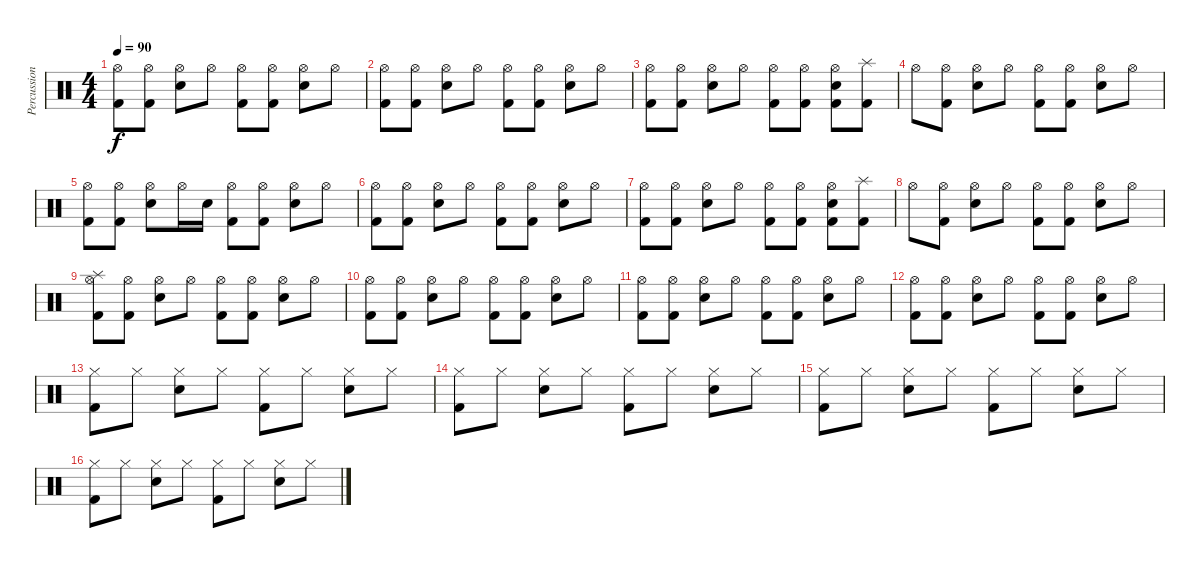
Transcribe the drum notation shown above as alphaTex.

\track ("Percussion" "Percussion") {instrument percussion}
\staff {score}
\articulation defaults
\ts (4 4)
\tempo 90
\clef neutral
\ks c
("Hi-Hat (open)" "Kick (hit) 2").8{dy f} ("Hi-Hat (open)" "Kick (hit) 2").8 ("Hi-Hat (open)" "Snare (hit) 2").8 "Hi-Hat (open)".8 ("Hi-Hat (open)" "Kick (hit) 2").8 ("Hi-Hat (open)" "Kick (hit) 2").8 ("Hi-Hat (open)" "Snare (hit) 2").8 "Hi-Hat (open)".8 |
("Hi-Hat (open)" "Kick (hit) 2").8 ("Hi-Hat (open)" "Kick (hit) 2").8 ("Hi-Hat (open)" "Snare (hit) 2").8 "Hi-Hat (open)".8 ("Hi-Hat (open)" "Kick (hit) 2").8 ("Hi-Hat (open)" "Kick (hit) 2").8 ("Hi-Hat (open)" "Snare (hit) 2").8 "Hi-Hat (open)".8 |
("Hi-Hat (open)" "Kick (hit) 2").8 ("Hi-Hat (open)" "Kick (hit) 2").8 ("Hi-Hat (open)" "Snare (hit) 2").8 "Hi-Hat (open)".8 ("Hi-Hat (open)" "Kick (hit) 2").8 ("Hi-Hat (open)" "Kick (hit) 2").8 ("Hi-Hat (open)" "Snare (hit) 2" "Kick (hit) 2").8 ("Splash (hit)" "Kick (hit) 2").8 |
"Hi-Hat (open)".8 ("Hi-Hat (open)" "Kick (hit) 2").8 ("Hi-Hat (open)" "Snare (hit) 2").8 "Hi-Hat (open)".8 ("Hi-Hat (open)" "Kick (hit) 2").8 ("Hi-Hat (open)" "Kick (hit) 2").8 ("Hi-Hat (open)" "Snare (hit) 2").8 "Hi-Hat (open)".8 |
("Hi-Hat (open)" "Kick (hit) 2").8 ("Hi-Hat (open)" "Kick (hit) 2").8 ("Hi-Hat (open)" "Snare (hit) 2").8 "Hi-Hat (open)".16 "Snare (hit) 2".16 ("Hi-Hat (open)" "Kick (hit) 2").8 ("Hi-Hat (open)" "Kick (hit) 2").8 ("Hi-Hat (open)" "Snare (hit) 2").8 "Hi-Hat (open)".8 |
("Hi-Hat (open)" "Kick (hit) 2").8 ("Hi-Hat (open)" "Kick (hit) 2").8 ("Hi-Hat (open)" "Snare (hit) 2").8 "Hi-Hat (open)".8 ("Hi-Hat (open)" "Kick (hit) 2").8 ("Hi-Hat (open)" "Kick (hit) 2").8 ("Hi-Hat (open)" "Snare (hit) 2").8 "Hi-Hat (open)".8 |
("Hi-Hat (open)" "Kick (hit) 2").8 ("Hi-Hat (open)" "Kick (hit) 2").8 ("Hi-Hat (open)" "Snare (hit) 2").8 "Hi-Hat (open)".8 ("Hi-Hat (open)" "Kick (hit) 2").8 ("Hi-Hat (open)" "Kick (hit) 2").8 ("Hi-Hat (open)" "Snare (hit) 2" "Kick (hit) 2").8 ("Splash (hit)" "Kick (hit) 2").8 |
"Hi-Hat (open)".8 ("Hi-Hat (open)" "Kick (hit) 2").8 ("Hi-Hat (open)" "Snare (hit) 2").8 "Hi-Hat (open)".8 ("Hi-Hat (open)" "Kick (hit) 2").8 ("Hi-Hat (open)" "Kick (hit) 2").8 ("Hi-Hat (open)" "Snare (hit) 2").8 "Hi-Hat (open)".8 |
("Hi-Hat (open)" "Splash (hit)" "Kick (hit) 2").8 ("Hi-Hat (open)" "Kick (hit) 2").8 ("Hi-Hat (open)" "Snare (hit) 2").8 "Hi-Hat (open)".8 ("Hi-Hat (open)" "Kick (hit) 2").8 ("Hi-Hat (open)" "Kick (hit) 2").8 ("Hi-Hat (open)" "Snare (hit) 2").8 "Hi-Hat (open)".8 |
("Hi-Hat (open)" "Kick (hit) 2").8 ("Hi-Hat (open)" "Kick (hit) 2").8 ("Hi-Hat (open)" "Snare (hit) 2").8 "Hi-Hat (open)".8 ("Hi-Hat (open)" "Kick (hit) 2").8 ("Hi-Hat (open)" "Kick (hit) 2").8 ("Hi-Hat (open)" "Snare (hit) 2").8 "Hi-Hat (open)".8 |
("Hi-Hat (open)" "Kick (hit) 2").8 ("Hi-Hat (open)" "Kick (hit) 2").8 ("Hi-Hat (open)" "Snare (hit) 2").8 "Hi-Hat (open)".8 ("Hi-Hat (open)" "Kick (hit) 2").8 ("Hi-Hat (open)" "Kick (hit) 2").8 ("Hi-Hat (open)" "Snare (hit) 2").8 "Hi-Hat (open)".8 |
("Hi-Hat (open)" "Kick (hit) 2").8 ("Hi-Hat (open)" "Kick (hit) 2").8 ("Hi-Hat (open)" "Snare (hit) 2").8 "Hi-Hat (open)".8 ("Hi-Hat (open)" "Kick (hit) 2").8 ("Hi-Hat (open)" "Kick (hit) 2").8 ("Hi-Hat (open)" "Snare (hit) 2").8 "Hi-Hat (open)".8 |
("Hi-Hat (closed)" "Kick (hit) 2").8 "Hi-Hat (closed)".8 ("Hi-Hat (closed)" "Snare (hit) 2").8 "Hi-Hat (closed)".8 ("Hi-Hat (closed)" "Kick (hit) 2").8 "Hi-Hat (closed)".8 ("Hi-Hat (closed)" "Snare (hit) 2").8 "Hi-Hat (closed)".8 |
("Hi-Hat (closed)" "Kick (hit) 2").8 "Hi-Hat (closed)".8 ("Hi-Hat (closed)" "Snare (hit) 2").8 "Hi-Hat (closed)".8 ("Hi-Hat (closed)" "Kick (hit) 2").8 "Hi-Hat (closed)".8 ("Hi-Hat (closed)" "Snare (hit) 2").8 "Hi-Hat (closed)".8 |
("Hi-Hat (closed)" "Kick (hit) 2").8 "Hi-Hat (closed)".8 ("Hi-Hat (closed)" "Snare (hit) 2").8 "Hi-Hat (closed)".8 ("Hi-Hat (closed)" "Kick (hit) 2").8 "Hi-Hat (closed)".8 ("Hi-Hat (closed)" "Snare (hit) 2").8 "Hi-Hat (closed)".8 |
("Hi-Hat (closed)" "Kick (hit) 2").8 "Hi-Hat (closed)".8 ("Hi-Hat (closed)" "Snare (hit) 2").8 "Hi-Hat (closed)".8 ("Hi-Hat (closed)" "Kick (hit) 2").8 "Hi-Hat (closed)".8 ("Hi-Hat (closed)" "Snare (hit) 2").8 "Hi-Hat (closed)".8
